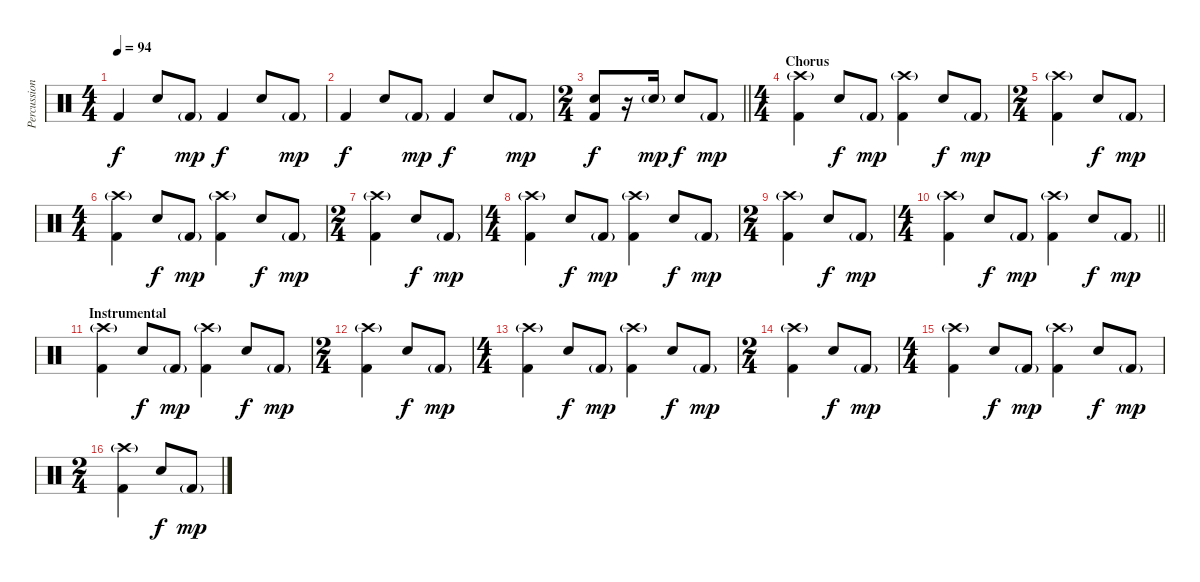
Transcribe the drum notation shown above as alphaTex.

\track ("Percussion" "Percussion") {instrument percussion}
\staff {score}
\articulation defaults
\ts (4 4)
\tempo 94
\clef neutral
\ks c "Kick (hit) 2".4{dy f} "Snare (hit) 2".8 "Kick (hit) 2"{g}.8{dy mp} "Kick (hit) 2".4{dy f} "Snare (hit) 2".8 "Kick (hit) 2"{g}.8{dy mp}
|
"Kick (hit) 2".4{dy f} "Snare (hit) 2".8 "Kick (hit) 2"{g}.8{dy mp} "Kick (hit) 2".4{dy f} "Snare (hit) 2".8 "Kick (hit) 2"{g}.8{dy mp} |
\ts (2 4)
\barLineRight lightlight
("Snare (hit) 2" "Kick (hit) 2").8{dy f} r.16 "Snare (hit) 2"{g}.16{dy mp} "Snare (hit) 2".8{dy f} "Kick (hit) 2"{g}.8{dy mp} |
\ts (4 4)
\section ("" "Chorus")
("Crash high (hit)"{g} "Kick (hit) 2").4 "Snare (hit) 2".8{dy f} "Kick (hit) 2"{g}.8{dy mp} ("Crash high (hit)"{g} "Kick (hit) 2").4 "Snare (hit) 2".8{dy f} "Kick (hit) 2"{g}.8{dy mp} |
\ts (2 4)
("Crash high (hit)"{g} "Kick (hit) 2").4 "Snare (hit) 2".8{dy f} "Kick (hit) 2"{g}.8{dy mp} |
\ts (4 4)
("Crash high (hit)"{g} "Kick (hit) 2").4 "Snare (hit) 2".8{dy f} "Kick (hit) 2"{g}.8{dy mp} ("Crash high (hit)"{g} "Kick (hit) 2").4 "Snare (hit) 2".8{dy f} "Kick (hit) 2"{g}.8{dy mp} |
\ts (2 4)
("Crash high (hit)"{g} "Kick (hit) 2").4 "Snare (hit) 2".8{dy f} "Kick (hit) 2"{g}.8{dy mp} |
\ts (4 4)
("Crash high (hit)"{g} "Kick (hit) 2").4 "Snare (hit) 2".8{dy f} "Kick (hit) 2"{g}.8{dy mp} ("Crash high (hit)"{g} "Kick (hit) 2").4 "Snare (hit) 2".8{dy f} "Kick (hit) 2"{g}.8{dy mp} |
\ts (2 4)
("Crash high (hit)"{g} "Kick (hit) 2").4 "Snare (hit) 2".8{dy f} "Kick (hit) 2"{g}.8{dy mp} |
\ts (4 4)
\barLineRight lightlight
("Crash high (hit)"{g} "Kick (hit) 2").4 "Snare (hit) 2".8{dy f} "Kick (hit) 2"{g}.8{dy mp} ("Crash high (hit)"{g} "Kick (hit) 2").4 "Snare (hit) 2".8{dy f} "Kick (hit) 2"{g}.8{dy mp} |
\section ("" "Instrumental")
("Crash high (hit)"{g} "Kick (hit) 2").4 "Snare (hit) 2".8{dy f} "Kick (hit) 2"{g}.8{dy mp} ("Crash high (hit)"{g} "Kick (hit) 2").4 "Snare (hit) 2".8{dy f} "Kick (hit) 2"{g}.8{dy mp} |
\ts (2 4)
("Crash high (hit)"{g} "Kick (hit) 2").4 "Snare (hit) 2".8{dy f} "Kick (hit) 2"{g}.8{dy mp} |
\ts (4 4)
("Crash high (hit)"{g} "Kick (hit) 2").4 "Snare (hit) 2".8{dy f} "Kick (hit) 2"{g}.8{dy mp} ("Crash high (hit)"{g} "Kick (hit) 2").4 "Snare (hit) 2".8{dy f} "Kick (hit) 2"{g}.8{dy mp} |
\ts (2 4)
("Crash high (hit)"{g} "Kick (hit) 2").4 "Snare (hit) 2".8{dy f} "Kick (hit) 2"{g}.8{dy mp} |
\ts (4 4)
("Crash high (hit)"{g} "Kick (hit) 2").4 "Snare (hit) 2".8{dy f} "Kick (hit) 2"{g}.8{dy mp} ("Crash high (hit)"{g} "Kick (hit) 2").4 "Snare (hit) 2".8{dy f} "Kick (hit) 2"{g}.8{dy mp} |
\ts (2 4)
("Crash high (hit)"{g} "Kick (hit) 2").4 "Snare (hit) 2".8{dy f} "Kick (hit) 2"{g}.8{dy mp}
